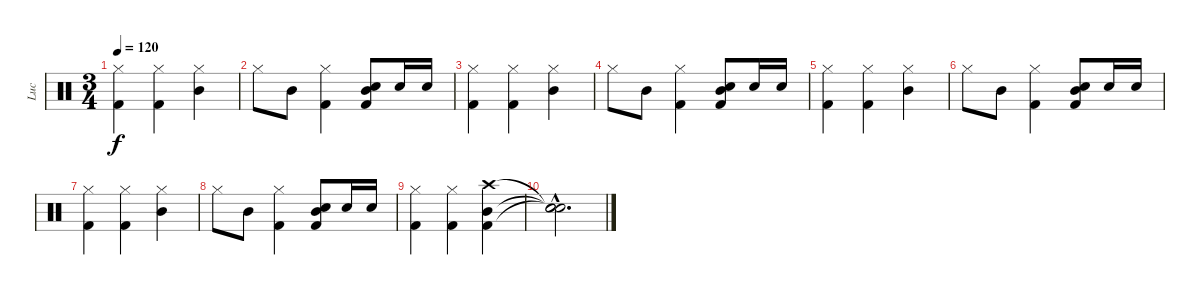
\track ("Luc" "Luc") {instrument percussion}
\staff {score}
\articulation defaults
\ts (3 4)
\tempo 120
\clef neutral
\ks c
("Hi-Hat (closed)" "Kick (hit) 2").4{dy f} ("Hi-Hat (closed)" "Kick (hit) 2").4 ("Hi-Hat (closed)" "Mid Tom (hit)").4 |
"Hi-Hat (closed)".8 "Mid Tom (hit)".8 ("Hi-Hat (closed)" "Kick (hit) 2").4 ("Mid Tom (hit)" "Snare (hit) 2" "Kick (hit) 2").8 "Snare (hit) 2".16 "Snare (hit) 2".16 |
("Hi-Hat (closed)" "Kick (hit) 2").4 ("Hi-Hat (closed)" "Kick (hit) 2").4 ("Hi-Hat (closed)" "Mid Tom (hit)").4 |
"Hi-Hat (closed)".8 "Mid Tom (hit)".8 ("Hi-Hat (closed)" "Kick (hit) 2").4 ("Mid Tom (hit)" "Snare (hit) 2" "Kick (hit) 2").8 "Snare (hit) 2".16 "Snare (hit) 2".16 |
("Hi-Hat (closed)" "Kick (hit) 2").4 ("Hi-Hat (closed)" "Kick (hit) 2").4 ("Hi-Hat (closed)" "Mid Tom (hit)").4 |
"Hi-Hat (closed)".8 "Mid Tom (hit)".8 ("Hi-Hat (closed)" "Kick (hit) 2").4 ("Mid Tom (hit)" "Snare (hit) 2" "Kick (hit) 2").8 "Snare (hit) 2".16 "Snare (hit) 2".16 |
("Hi-Hat (closed)" "Kick (hit) 2").4 ("Hi-Hat (closed)" "Kick (hit) 2").4 ("Hi-Hat (closed)" "Mid Tom (hit)").4 |
"Hi-Hat (closed)".8 "Mid Tom (hit)".8 ("Hi-Hat (closed)" "Kick (hit) 2").4 ("Mid Tom (hit)" "Snare (hit) 2" "Kick (hit) 2").8 "Snare (hit) 2".16 "Snare (hit) 2".16 |
("Hi-Hat (closed)" "Kick (hit) 2").4 ("Hi-Hat (closed)" "Kick (hit) 2").4 ("Crash high (hit)" "Mid Tom (hit)" "Kick (hit) 2").4 |
("Snare (hit)"{hac t} "Snare (hit)"{hac t} "Snare (hit)"{hac t}).2{d}
